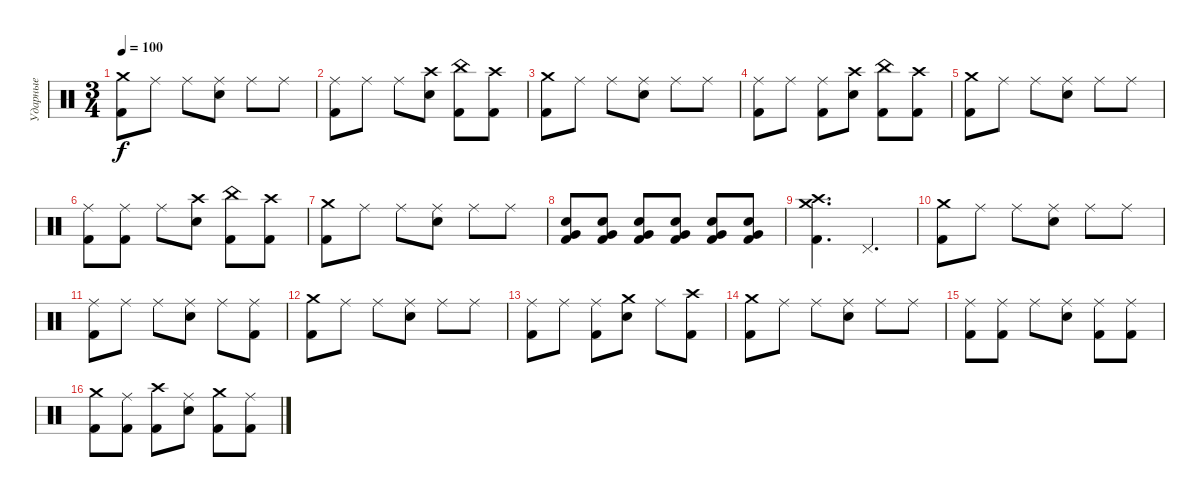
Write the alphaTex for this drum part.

\track ("Ударные" "Ударные") {instrument percussion}
\staff {score}
\articulation defaults
\ts (3 4)
\tempo 100
\clef neutral
\ks c
("Crash medium (hit)" "Kick (hit) 2").8{dy f} "Ride (middle)".8 "Ride (middle)".8 ("Ride (middle)" "Electric Snare (hit)").8 "Ride (middle)".8 "Ride (middle)".8 |
("Ride (middle)" "Kick (hit) 2").8 "Ride (middle)".8 "Ride (middle)".8 ("Crash high (hit)" "Electric Snare (hit)").8 ("China (hit)" "Kick (hit) 2").8 ("Crash high (hit)" "Kick (hit) 2").8 |
("Crash medium (hit)" "Kick (hit) 2").8 "Ride (middle)".8 "Ride (middle)".8 ("Ride (middle)" "Electric Snare (hit)").8 "Ride (middle)".8 "Ride (middle)".8 |
("Ride (middle)" "Kick (hit) 2").8 "Ride (middle)".8 ("Ride (middle)" "Kick (hit) 2").8 ("Crash high (hit)" "Electric Snare (hit)").8 ("China (hit)" "Kick (hit) 2").8 ("Crash high (hit)" "Kick (hit) 2").8 |
("Crash medium (hit)" "Kick (hit) 2").8 "Ride (middle)".8 "Ride (middle)".8 ("Ride (middle)" "Electric Snare (hit)").8 "Ride (middle)".8 "Ride (middle)".8 |
("Ride (middle)" "Kick (hit) 2").8 ("Ride (middle)" "Kick (hit) 2").8 "Ride (middle)".8 ("Crash high (hit)" "Electric Snare (hit)").8 ("China (hit)" "Kick (hit) 2").8 ("Crash high (hit)" "Kick (hit) 2").8 |
("Crash medium (hit)" "Kick (hit) 2").8 "Ride (middle)".8 "Ride (middle)".8 ("Ride (middle)" "Electric Snare (hit)").8 "Ride (middle)".8 "Ride (middle)".8 |
("Electric Snare (hit)" "Very Low Tom (hit)" "Kick (hit) 2").8 ("Electric Snare (hit)" "Very Low Tom (hit)" "Kick (hit) 2").8 ("Electric Snare (hit)" "Very Low Tom (hit)" "Kick (hit) 2").8 ("Electric Snare (hit)" "Very Low Tom (hit)" "Kick (hit) 2").8 ("Electric Snare (hit)" "Very Low Tom (hit)" "Kick (hit) 2").8 ("Electric Snare (hit)" "Very Low Tom (hit)" "Kick (hit) 2").8 |
("Crash medium (hit)" "Crash high (hit)" "Kick (hit) 2").4{d} "Pedal Hi-Hat (hit)".4{d} |
("Crash medium (hit)" "Kick (hit) 2").8 "Ride (middle)".8 "Ride (middle)".8 ("Ride (middle)" "Electric Snare (hit)").8 "Ride (middle)".8 "Ride (middle)".8 |
("Ride (middle)" "Kick (hit) 2").8 "Ride (middle)".8 "Ride (middle)".8 ("Ride (middle)" "Electric Snare (hit)").8 "Ride (middle)".8 ("Ride (middle)" "Kick (hit) 2").8 |
("Crash medium (hit)" "Kick (hit) 2").8 "Ride (middle)".8 "Ride (middle)".8 ("Ride (middle)" "Electric Snare (hit)").8 "Ride (middle)".8 "Ride (middle)".8 |
("Ride (middle)" "Kick (hit) 2").8 "Ride (middle)".8 ("Ride (middle)" "Kick (hit) 2").8 ("Crash medium (hit)" "Electric Snare (hit)").8 "Ride (middle)".8 ("Crash high (hit)" "Kick (hit) 2").8 |
("Crash medium (hit)" "Kick (hit) 2").8 "Ride (middle)".8 "Ride (middle)".8 ("Ride (middle)" "Electric Snare (hit)").8 "Ride (middle)".8 "Ride (middle)".8 |
("Ride (middle)" "Kick (hit) 2").8 ("Ride (middle)" "Kick (hit) 2").8 "Ride (middle)".8 ("Ride (middle)" "Electric Snare (hit)").8 ("Ride (middle)" "Kick (hit) 2").8 ("Ride (middle)" "Kick (hit) 2").8 |
("Crash medium (hit)" "Kick (hit) 2").8 ("Ride (middle)" "Kick (hit) 2").8 ("Crash high (hit)" "Kick (hit) 2").8 ("Ride (middle)" "Electric Snare (hit)").8 ("Crash medium (hit)" "Kick (hit) 2").8 ("Ride (middle)" "Kick (hit) 2").8
